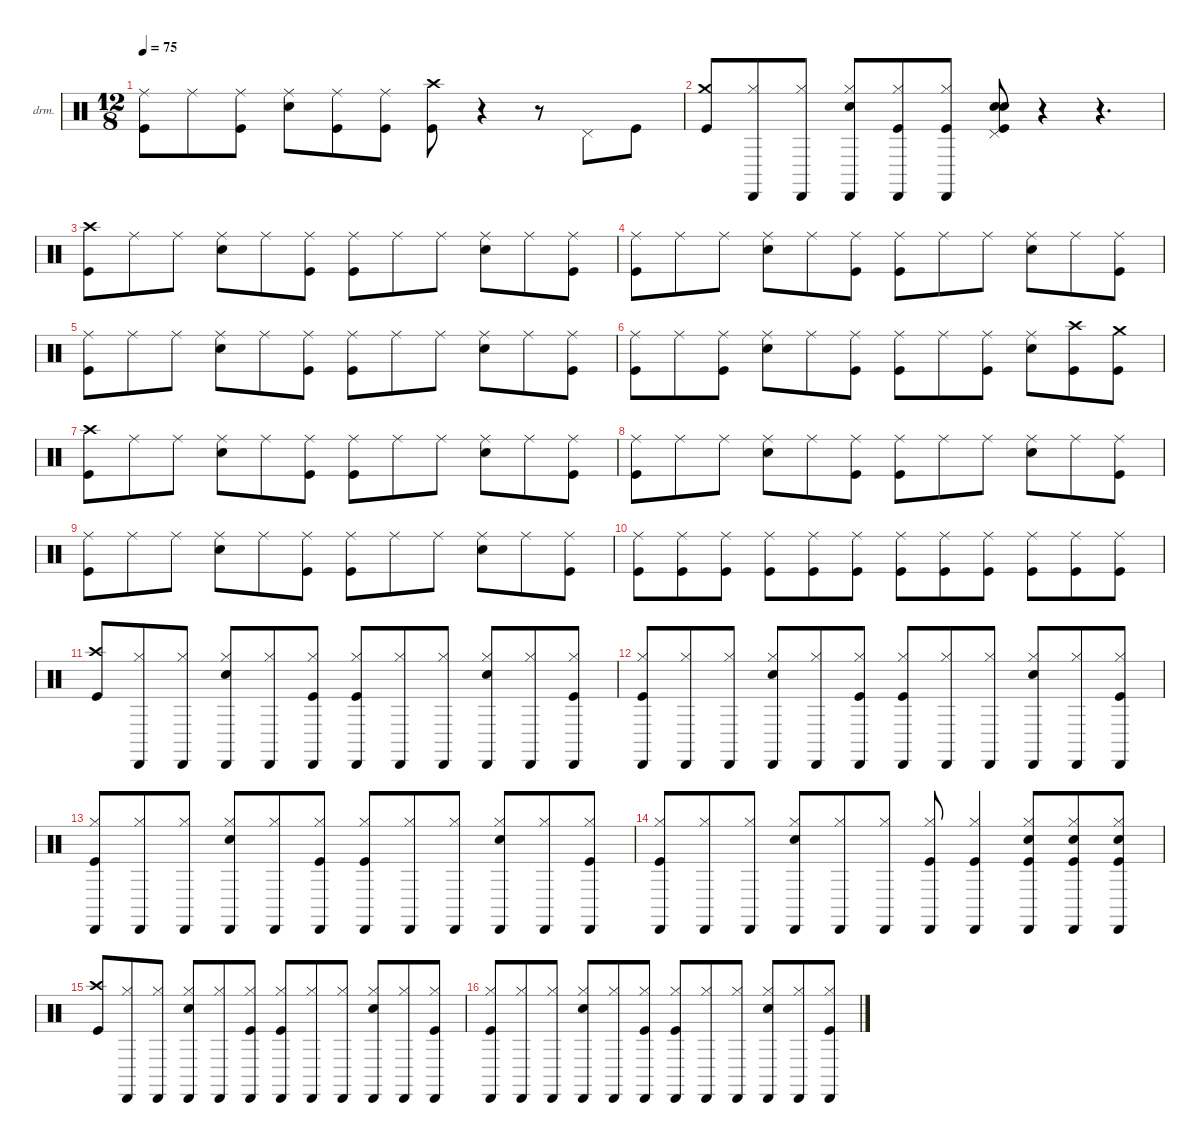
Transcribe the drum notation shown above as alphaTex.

\defaultSystemsLayout 4
\hideDynamics
\bracketExtendMode nobrackets
\firstSystemTrackNameOrientation horizontal
\otherSystemsTrackNameOrientation horizontal
\track ("Drums" "drm.") {instrument percussion}
\staff {score}
\articulation defaults
\ts (12 8)
\tempo 75
\clef neutral
\ks c
("Ride (middle)" "Kick (hit)").8{dy mf beam Down} "Ride (middle)".8{dy p beam Down} ("Ride (middle)" "Kick (hit)").8{dy mp beam Down} ("Ride (middle)" "Snare (hit) 2").8{dy mf beam Down} ("Ride (middle)" "Kick (hit)").8{dy p beam Down} ("Ride (middle)" "Kick (hit)").8{dy mp beam Down} ("Crash high (hit)" "Kick (hit)").8{dy f beam Down} r.4{beam Down} r.8{beam Down} "Pedal Hi-Hat (hit)".8{dy mf beam Up} "Kick (hit)".8{dy f beam Up} |
("Crash medium (hit)" "Kick (hit)").8{beam Up} ("Hi-Hat (closed)" "Cabasa (hit)").8{dy pp beam Up} ("Hi-Hat (closed)" "Cabasa (hit)").8{dy p beam Up} ("Snare (hit) 2" "Hi-Hat (closed)" "Cabasa (hit)").8{dy ff beam Up} ("Kick (hit)" "Hi-Hat (closed)" "Cabasa (hit)").8{dy mf beam Up} ("Kick (hit)" "Hi-Hat (closed)" "Cabasa (hit)").8{dy f beam Up} ("Pedal Hi-Hat (hit)" "Snare (hit) 2" "Kick (hit)" "Snare (hit) 2").8{dy mf beam Up} r.4{beam Up} r.4{d beam Up} |
("Crash high (hit)" "Kick (hit)").8{dy f beam Down} "Ride (middle)".8{dy p beam Down} "Ride (middle)".8{dy mp beam Down} ("Ride (middle)" "Snare (hit) 2").8{dy mf beam Down} "Ride (middle)".8{dy p beam Down} ("Ride (middle)" "Kick (hit)").8{dy mp beam Down} ("Ride (middle)" "Kick (hit)").8{beam Down} "Ride (middle)".8{dy p beam Down} "Ride (middle)".8{dy mp beam Down} ("Ride (middle)" "Snare (hit) 2").8{dy mf beam Down} "Ride (middle)".8{dy p beam Down} ("Ride (middle)" "Kick (hit)").8{dy mp beam Down} |
("Ride (middle)" "Kick (hit)").8{dy mf beam Down} "Ride (middle)".8{dy p beam Down} "Ride (middle)".8{dy mp beam Down} ("Ride (middle)" "Snare (hit) 2").8{dy mf beam Down} "Ride (middle)".8{dy p beam Down} ("Ride (middle)" "Kick (hit)").8{dy mp beam Down} ("Ride (middle)" "Kick (hit)").8{beam Down} "Ride (middle)".8{dy p beam Down} "Ride (middle)".8{dy mp beam Down} ("Ride (middle)" "Snare (hit) 2").8{dy mf beam Down} "Ride (middle)".8{dy p beam Down} ("Ride (middle)" "Kick (hit)").8{dy mp beam Down} |
("Ride (middle)" "Kick (hit)").8{dy mf beam Down} "Ride (middle)".8{dy p beam Down} "Ride (middle)".8{dy mp beam Down} ("Ride (middle)" "Snare (hit) 2").8{dy mf beam Down} "Ride (middle)".8{dy p beam Down} ("Ride (middle)" "Kick (hit)").8{dy mp beam Down} ("Ride (middle)" "Kick (hit)").8{beam Down} "Ride (middle)".8{dy p beam Down} "Ride (middle)".8{dy mp beam Down} ("Ride (middle)" "Snare (hit) 2").8{dy mf beam Down} "Ride (middle)".8{dy p beam Down} ("Ride (middle)" "Kick (hit)").8{dy mp beam Down} |
("Ride (middle)" "Kick (hit)").8{dy mf beam Down} "Ride (middle)".8{dy p beam Down} ("Ride (middle)" "Kick (hit)").8{dy mp beam Down} ("Ride (middle)" "Snare (hit) 2").8{dy mf beam Down} "Ride (middle)".8{dy p beam Down} ("Ride (middle)" "Kick (hit)").8{dy mp beam Down} ("Ride (middle)" "Kick (hit)").8{beam Down} "Ride (middle)".8{dy p beam Down} ("Ride (middle)" "Kick (hit)").8{dy mp beam Down} ("Ride (middle)" "Snare (hit) 2").8{dy mf beam Down} ("Crash high (hit)" "Kick (hit)").8{dy f beam Down} ("Crash medium (hit)" "Kick (hit)").8{beam Down} |
("Crash high (hit)" "Kick (hit)").8{beam Down} "Ride (middle)".8{dy p beam Down} "Ride (middle)".8{dy mp beam Down} ("Ride (middle)" "Snare (hit) 2").8{dy mf beam Down} "Ride (middle)".8{dy p beam Down} ("Ride (middle)" "Kick (hit)").8{dy mp beam Down} ("Ride (middle)" "Kick (hit)").8{beam Down} "Ride (middle)".8{dy p beam Down} "Ride (middle)".8{dy mp beam Down} ("Ride (middle)" "Snare (hit) 2").8{dy mf beam Down} "Ride (middle)".8{dy p beam Down} ("Ride (middle)" "Kick (hit)").8{dy mp beam Down} |
("Ride (middle)" "Kick (hit)").8{dy mf beam Down} "Ride (middle)".8{dy p beam Down} "Ride (middle)".8{dy mp beam Down} ("Ride (middle)" "Snare (hit) 2").8{dy mf beam Down} "Ride (middle)".8{dy p beam Down} ("Ride (middle)" "Kick (hit)").8{dy mp beam Down} ("Ride (middle)" "Kick (hit)").8{beam Down} "Ride (middle)".8{dy p beam Down} "Ride (middle)".8{dy mp beam Down} ("Ride (middle)" "Snare (hit) 2").8{dy mf beam Down} "Ride (middle)".8{dy p beam Down} ("Ride (middle)" "Kick (hit)").8{dy mp beam Down} |
("Ride (middle)" "Kick (hit)").8{dy mf beam Down} "Ride (middle)".8{dy p beam Down} "Ride (middle)".8{dy mp beam Down} ("Ride (middle)" "Snare (hit) 2").8{dy mf beam Down} "Ride (middle)".8{dy p beam Down} ("Ride (middle)" "Kick (hit)").8{dy mp beam Down} ("Ride (middle)" "Kick (hit)").8{beam Down} "Ride (middle)".8{dy p beam Down} "Ride (middle)".8{dy mp beam Down} ("Ride (middle)" "Snare (hit) 2").8{dy mf beam Down} "Ride (middle)".8{dy p beam Down} ("Ride (middle)" "Kick (hit)").8{dy mp beam Down} |
("Ride (middle)" "Kick (hit)").8{dy mf beam Down} ("Ride (middle)" "Kick (hit)").8{dy p beam Down} ("Ride (middle)" "Kick (hit)").8{dy mp beam Down} ("Ride (middle)" "Kick (hit)").8{dy mf beam Down} ("Ride (middle)" "Kick (hit)").8{dy p beam Down} ("Ride (middle)" "Kick (hit)").8{dy mp beam Down} ("Ride (middle)" "Kick (hit)").8{dy mf beam Down} ("Ride (middle)" "Kick (hit)").8{dy p beam Down} ("Ride (middle)" "Kick (hit)").8{dy mp beam Down} ("Ride (middle)" "Kick (hit)").8{dy mf beam Down} ("Ride (middle)" "Kick (hit)").8{dy p beam Down} ("Ride (middle)" "Kick (hit)").8{dy mp beam Down} |
("Crash high (hit)" "Kick (hit)").8{dy f beam Up} ("Hi-Hat (closed)" "Cabasa (hit)").8{dy pp beam Up} ("Hi-Hat (closed)" "Cabasa (hit)").8{dy p beam Up} ("Snare (hit) 2" "Hi-Hat (closed)" "Cabasa (hit)").8{dy ff beam Up} ("Hi-Hat (closed)" "Cabasa (hit)").8{dy pp beam Up} ("Kick (hit)" "Hi-Hat (closed)" "Cabasa (hit)").8{dy f beam Up} ("Kick (hit)" "Hi-Hat (closed)" "Cabasa (hit)").8{dy fff beam Up} ("Hi-Hat (closed)" "Cabasa (hit)").8{dy pp beam Up} ("Hi-Hat (closed)" "Cabasa (hit)").8{dy p beam Up} ("Snare (hit) 2" "Hi-Hat (closed)" "Cabasa (hit)").8{dy ff beam Up} ("Hi-Hat (closed)" "Cabasa (hit)").8{dy pp beam Up} ("Kick (hit)" "Hi-Hat (closed)" "Cabasa (hit)").8{dy f beam Up} |
("Kick (hit)" "Hi-Hat (closed)" "Cabasa (hit)").8{dy fff beam Up} ("Hi-Hat (closed)" "Cabasa (hit)").8{dy pp beam Up} ("Hi-Hat (closed)" "Cabasa (hit)").8{dy p beam Up} ("Snare (hit) 2" "Hi-Hat (closed)" "Cabasa (hit)").8{dy ff beam Up} ("Hi-Hat (closed)" "Cabasa (hit)").8{dy pp beam Up} ("Kick (hit)" "Hi-Hat (closed)" "Cabasa (hit)").8{dy f beam Up} ("Kick (hit)" "Hi-Hat (closed)" "Cabasa (hit)").8{dy fff beam Up} ("Hi-Hat (closed)" "Cabasa (hit)").8{dy pp beam Up} ("Hi-Hat (closed)" "Cabasa (hit)").8{dy p beam Up} ("Snare (hit) 2" "Hi-Hat (closed)" "Cabasa (hit)").8{dy ff beam Up} ("Hi-Hat (closed)" "Cabasa (hit)").8{dy pp beam Up} ("Kick (hit)" "Hi-Hat (closed)" "Cabasa (hit)").8{dy f beam Up} |
("Kick (hit)" "Hi-Hat (closed)" "Cabasa (hit)").8{dy fff beam Up} ("Hi-Hat (closed)" "Cabasa (hit)").8{dy pp beam Up} ("Hi-Hat (closed)" "Cabasa (hit)").8{dy p beam Up} ("Snare (hit) 2" "Hi-Hat (closed)" "Cabasa (hit)").8{dy ff beam Up} ("Hi-Hat (closed)" "Cabasa (hit)").8{dy pp beam Up} ("Kick (hit)" "Hi-Hat (closed)" "Cabasa (hit)").8{dy f beam Up} ("Kick (hit)" "Hi-Hat (closed)" "Cabasa (hit)").8{dy fff beam Up} ("Hi-Hat (closed)" "Cabasa (hit)").8{dy pp beam Up} ("Hi-Hat (closed)" "Cabasa (hit)").8{dy p beam Up} ("Snare (hit) 2" "Hi-Hat (closed)" "Cabasa (hit)").8{dy ff beam Up} ("Hi-Hat (closed)" "Cabasa (hit)").8{dy pp beam Up} ("Kick (hit)" "Hi-Hat (closed)" "Cabasa (hit)").8{dy f beam Up} |
("Kick (hit)" "Hi-Hat (closed)" "Cabasa (hit)").8{dy fff beam Up} ("Hi-Hat (closed)" "Cabasa (hit)").8{dy pp beam Up} ("Hi-Hat (closed)" "Cabasa (hit)").8{dy p beam Up} ("Snare (hit) 2" "Hi-Hat (closed)" "Cabasa (hit)").8{dy ff beam Up} ("Hi-Hat (closed)" "Cabasa (hit)").8{dy pp beam Up} ("Hi-Hat (closed)" "Cabasa (hit)").8{dy f beam Up} ("Kick (hit)" "Hi-Hat (closed)" "Cabasa (hit)").8{dy mf beam Up} ("Kick (hit)" "Hi-Hat (closed)" "Cabasa (hit)").4{dy f beam Up} ("Snare (hit) 2" "Kick (hit)" "Hi-Hat (closed)" "Cabasa (hit)").8{dy mp beam Up} ("Snare (hit) 2" "Kick (hit)" "Hi-Hat (closed)" "Cabasa (hit)").8{dy f beam Up} ("Snare (hit) 2" "Kick (hit)" "Hi-Hat (closed)" "Cabasa (hit)").8{dy ff beam Up} |
("Crash high (hit)" "Kick (hit)").8{dy f beam Up} ("Hi-Hat (closed)" "Cabasa (hit)").8{dy pp beam Up} ("Hi-Hat (closed)" "Cabasa (hit)").8{dy p beam Up} ("Snare (hit) 2" "Hi-Hat (closed)" "Cabasa (hit)").8{dy ff beam Up} ("Hi-Hat (closed)" "Cabasa (hit)").8{dy pp beam Up} ("Kick (hit)" "Hi-Hat (closed)" "Cabasa (hit)").8{dy f beam Up} ("Kick (hit)" "Hi-Hat (closed)" "Cabasa (hit)").8{dy fff beam Up} ("Hi-Hat (closed)" "Cabasa (hit)").8{dy pp beam Up} ("Hi-Hat (closed)" "Cabasa (hit)").8{dy p beam Up} ("Snare (hit) 2" "Hi-Hat (closed)" "Cabasa (hit)").8{dy ff beam Up} ("Hi-Hat (closed)" "Cabasa (hit)").8{dy pp beam Up} ("Kick (hit)" "Hi-Hat (closed)" "Cabasa (hit)").8{dy f beam Up} |
("Kick (hit)" "Hi-Hat (closed)" "Cabasa (hit)").8{dy fff beam Up} ("Hi-Hat (closed)" "Cabasa (hit)").8{dy pp beam Up} ("Hi-Hat (closed)" "Cabasa (hit)").8{dy p beam Up} ("Snare (hit) 2" "Hi-Hat (closed)" "Cabasa (hit)").8{dy ff beam Up} ("Hi-Hat (closed)" "Cabasa (hit)").8{dy pp beam Up} ("Kick (hit)" "Hi-Hat (closed)" "Cabasa (hit)").8{dy f beam Up} ("Kick (hit)" "Hi-Hat (closed)" "Cabasa (hit)").8{dy fff beam Up} ("Hi-Hat (closed)" "Cabasa (hit)").8{dy pp beam Up} ("Hi-Hat (closed)" "Cabasa (hit)").8{dy p beam Up} ("Snare (hit) 2" "Hi-Hat (closed)" "Cabasa (hit)").8{dy ff beam Up} ("Hi-Hat (closed)" "Cabasa (hit)").8{dy pp beam Up} ("Kick (hit)" "Hi-Hat (closed)" "Cabasa (hit)").8{dy f beam Up}
